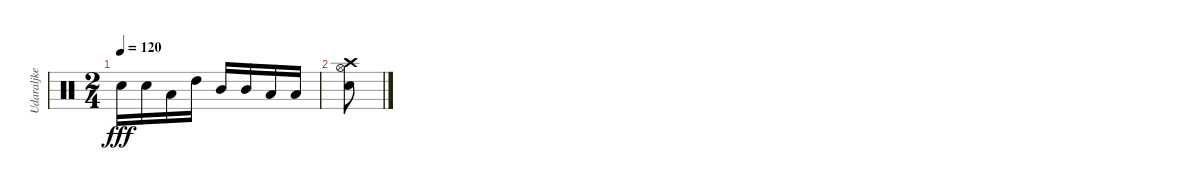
\track ("Udaraljke" "Udaraljke") {instrument percussion}
\staff
\articulation defaults
\ts (2 4)
\tempo 120
\clef neutral
\ks c "Snare (hit) 2".16{dy fff} "Snare (hit) 2".16 "Low Tom (hit)".16 "High Tom (hit)".16 "Mid Tom (hit)".16 "Mid Tom (hit)".16 "Low Tom (hit)".16 "Low Tom (hit)".16
|
("Crash high (hit)" "Hi-Hat (open)" "Snare (hit) 2").8
